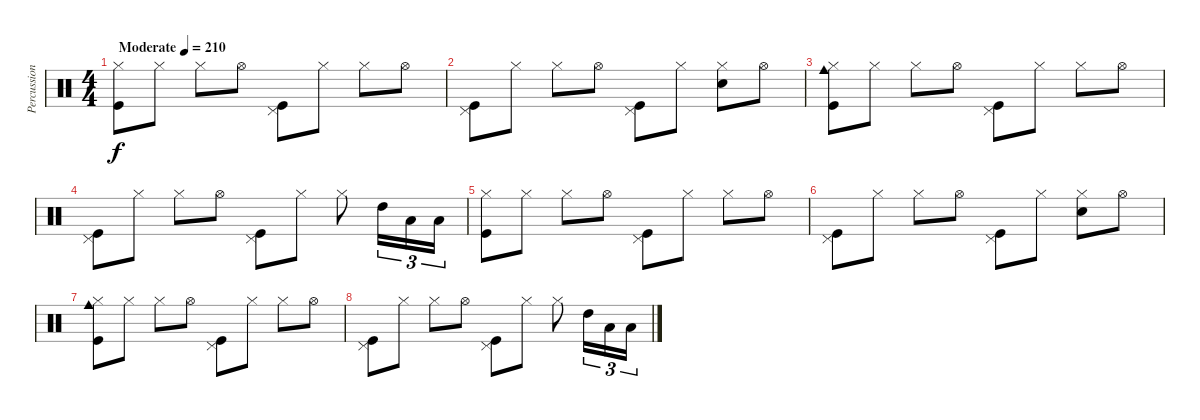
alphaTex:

\track ("Percussion" "Percussion") {instrument percussion}
\staff {score}
\articulation defaults
\ts (4 4)
\tempo (210 "Moderate")
\clef neutral
\ks c
("Hi-Hat (closed)" "Kick (hit)").8{dy f} "Hi-Hat (closed)".8 "Hi-Hat (closed)".8 "Hi-Hat (open)".8 ("Pedal Hi-Hat (hit)" "Kick (hit)").8 "Hi-Hat (closed)".8 "Hi-Hat (closed)".8 "Hi-Hat (open)".8 |
("Pedal Hi-Hat (hit)" "Kick (hit)").8 "Hi-Hat (closed)".8 "Hi-Hat (closed)".8 "Hi-Hat (open)".8 ("Pedal Hi-Hat (hit)" "Kick (hit)").8 "Hi-Hat (closed)".8 ("Hi-Hat (closed)" "Snare (hit) 2").8 "Hi-Hat (open)".8 |
("Hi-Hat (closed)" "Cowbell medium (hit)" "Kick (hit)").8 "Hi-Hat (closed)".8 "Hi-Hat (closed)".8 "Hi-Hat (open)".8 ("Pedal Hi-Hat (hit)" "Kick (hit)").8 "Hi-Hat (closed)".8 "Hi-Hat (closed)".8 "Hi-Hat (open)".8 |
("Pedal Hi-Hat (hit)" "Kick (hit)").8 "Hi-Hat (closed)".8 "Hi-Hat (closed)".8 "Hi-Hat (open)".8 ("Pedal Hi-Hat (hit)" "Kick (hit)").8 "Hi-Hat (closed)".8 "Hi-Hat (closed)".8 "High Tom (hit)".16{tu (3 2)} "Low Tom (hit)".16{tu (3 2)} "Low Floor Tom (hit)".16{tu (3 2)} |
("Hi-Hat (closed)" "Kick (hit)").8 "Hi-Hat (closed)".8 "Hi-Hat (closed)".8 "Hi-Hat (open)".8 ("Pedal Hi-Hat (hit)" "Kick (hit)").8 "Hi-Hat (closed)".8 "Hi-Hat (closed)".8 "Hi-Hat (open)".8 |
("Pedal Hi-Hat (hit)" "Kick (hit)").8 "Hi-Hat (closed)".8 "Hi-Hat (closed)".8 "Hi-Hat (open)".8 ("Pedal Hi-Hat (hit)" "Kick (hit)").8 "Hi-Hat (closed)".8 ("Hi-Hat (closed)" "Snare (hit) 2").8 "Hi-Hat (open)".8 |
("Hi-Hat (closed)" "Cowbell medium (hit)" "Kick (hit)").8 "Hi-Hat (closed)".8 "Hi-Hat (closed)".8 "Hi-Hat (open)".8 ("Pedal Hi-Hat (hit)" "Kick (hit)").8 "Hi-Hat (closed)".8 "Hi-Hat (closed)".8 "Hi-Hat (open)".8 |
("Pedal Hi-Hat (hit)" "Kick (hit)").8 "Hi-Hat (closed)".8 "Hi-Hat (closed)".8 "Hi-Hat (open)".8 ("Pedal Hi-Hat (hit)" "Kick (hit)").8 "Hi-Hat (closed)".8 "Hi-Hat (closed)".8 "High Tom (hit)".16{tu (3 2)} "Low Tom (hit)".16{tu (3 2)} "Low Floor Tom (hit)".16{tu (3 2)}
